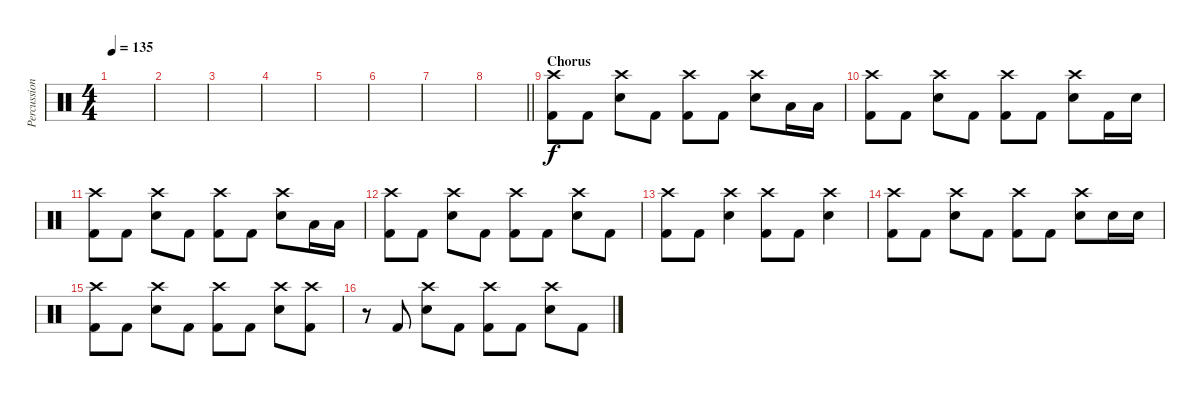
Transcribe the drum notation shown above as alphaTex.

\track ("Percussion" "Percussion") {instrument percussion}
\staff {score}
\articulation defaults
\ts (4 4)
\tempo 135
\clef neutral
\ks c
|
|
|
|
|
|
|
\barLineRight lightlight
|
\section ("" "Chorus")
("Kick (hit) 2" "Crash high (hit)").8{dy f} "Kick (hit) 2".8 ("Snare (hit) 2" "Crash high (hit)").8 "Kick (hit) 2".8 ("Kick (hit) 2" "Crash high (hit)").8 "Kick (hit) 2".8 ("Snare (hit) 2" "Crash high (hit)").8 "Low Floor Tom (hit)".16 "Low Floor Tom (hit)".16 |
("Kick (hit) 2" "Crash high (hit)").8 "Kick (hit) 2".8 ("Snare (hit) 2" "Crash high (hit)").8 "Kick (hit) 2".8 ("Kick (hit) 2" "Crash high (hit)").8 "Kick (hit) 2".8 ("Snare (hit) 2" "Crash high (hit)").8 "Kick (hit) 2".16 "Snare (hit) 2".16 |
("Kick (hit) 2" "Crash high (hit)").8 "Kick (hit) 2".8 ("Snare (hit) 2" "Crash high (hit)").8 "Kick (hit) 2".8 ("Kick (hit) 2" "Crash high (hit)").8 "Kick (hit) 2".8 ("Snare (hit) 2" "Crash high (hit)").8 "Low Floor Tom (hit)".16 "Low Floor Tom (hit)".16 |
("Kick (hit) 2" "Crash high (hit)").8 "Kick (hit) 2".8 ("Snare (hit) 2" "Crash high (hit)").8 "Kick (hit) 2".8 ("Kick (hit) 2" "Crash high (hit)").8 "Kick (hit) 2".8 ("Snare (hit) 2" "Crash high (hit)").8 "Kick (hit) 2".8 |
("Kick (hit) 2" "Crash high (hit)").8 "Kick (hit) 2".8 ("Snare (hit) 2" "Crash high (hit)").4 ("Kick (hit) 2" "Crash high (hit)").8 "Kick (hit) 2".8 ("Snare (hit) 2" "Crash high (hit)").4 |
("Kick (hit) 2" "Crash high (hit)").8 "Kick (hit) 2".8 ("Snare (hit) 2" "Crash high (hit)").8 "Kick (hit) 2".8 ("Kick (hit) 2" "Crash high (hit)").8 "Kick (hit) 2".8 ("Snare (hit) 2" "Crash high (hit)").8 "Snare (hit) 2".16 "Snare (hit) 2".16 |
("Kick (hit) 2" "Crash high (hit)").8 "Kick (hit) 2".8 ("Snare (hit) 2" "Crash high (hit)").8 "Kick (hit) 2".8 ("Kick (hit) 2" "Crash high (hit)").8 "Kick (hit) 2".8 ("Snare (hit) 2" "Crash high (hit)").8 ("Kick (hit) 2" "Crash high (hit)").8 |
r.8 "Kick (hit) 2".8 ("Snare (hit) 2" "Crash high (hit)").8 "Kick (hit) 2".8 ("Kick (hit) 2" "Crash high (hit)").8 "Kick (hit) 2".8 ("Snare (hit) 2" "Crash high (hit)").8 "Kick (hit) 2".8
